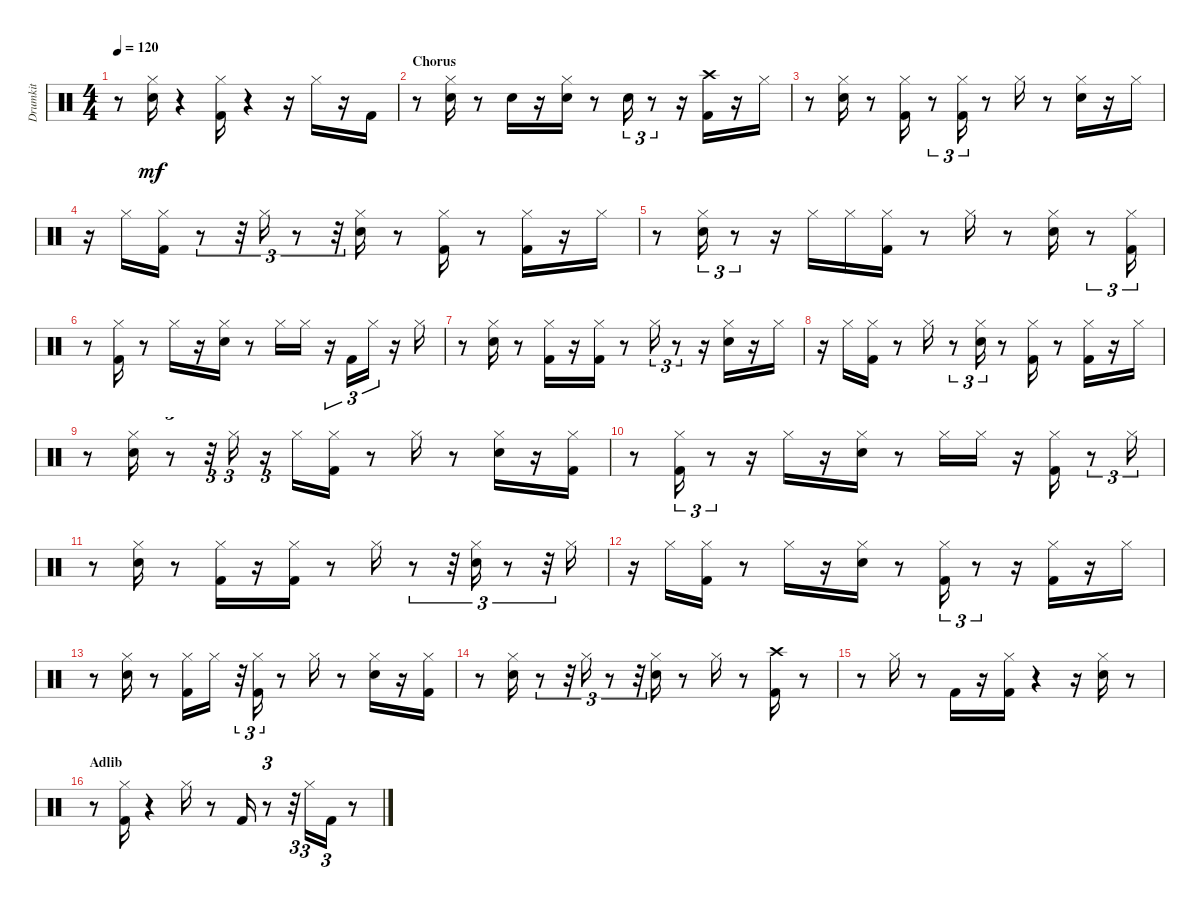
\track ("Drumkit" "Drumkit") {instrument percussion}
\staff {score}
\articulation defaults
\ts (4 4)
\tempo 120
\clef neutral
\ks aminor
r.8{dy mf} ("Snare (hit) 2" "Hi-Hat (closed)").16 r.4 ("Kick (hit) 2" "Hi-Hat (closed)").16 r.4 r.16 "Hi-Hat (closed)".16 r.16 "Kick (hit) 2".16 |
\section ("" "Chorus")
r.8 ("Snare (hit) 2" "Hi-Hat (closed)").16 r.8 "Snare (hit) 2".16 r.16 ("Snare (hit) 2" "Hi-Hat (closed)").16 r.8 "Snare (hit) 2".16{tu (3 2)} r.8{tu (3 2)} r.16 ("Kick (hit) 2" "Crash high (hit)").16 r.16 "Hi-Hat (closed)".16 |
r.8 ("Snare (hit) 2" "Hi-Hat (closed)").16 r.8 ("Kick (hit) 2" "Hi-Hat (closed)").16 r.8{tu (3 2)} ("Kick (hit) 2" "Hi-Hat (closed)").16{tu (3 2)} r.8 "Hi-Hat (closed)".16 r.8 ("Snare (hit) 2" "Hi-Hat (closed)").16 r.16 "Hi-Hat (closed)".16 |
r.16 "Hi-Hat (closed)".16 ("Kick (hit) 2" "Hi-Hat (closed)").16 r.8{tu (3 2)} r.32{tu (3 2)} "Hi-Hat (closed)".16{tu (3 2)} r.8{tu (3 2)} r.32{tu (3 2)} ("Snare (hit) 2" "Hi-Hat (closed)").16 r.8 ("Kick (hit) 2" "Hi-Hat (closed)").16 r.8 ("Kick (hit) 2" "Hi-Hat (closed)").16 r.16 "Hi-Hat (closed)".16 |
r.8 ("Snare (hit) 2" "Hi-Hat (closed)").16{tu (3 2)} r.8{tu (3 2)} r.16 "Hi-Hat (closed)".16 "Hi-Hat (closed)".16 ("Kick (hit) 2" "Hi-Hat (closed)").16 r.8 "Hi-Hat (closed)".16 r.8 ("Snare (hit) 2" "Hi-Hat (closed)").16 r.8{tu (3 2)} ("Kick (hit) 2" "Hi-Hat (closed)").16{tu (3 2)} |
r.8 ("Kick (hit) 2" "Hi-Hat (closed)").16 r.8 "Hi-Hat (closed)".16 r.16 ("Snare (hit) 2" "Hi-Hat (closed)").16 r.8 "Hi-Hat (closed)".16 "Hi-Hat (closed)".16 r.16{tu (3 2)} "Kick (hit) 2".16{tu (3 2)} "Hi-Hat (closed)".16{tu (3 2)} r.16 "Hi-Hat (closed)".16 |
r.8 ("Snare (hit) 2" "Hi-Hat (closed)").16 r.8 ("Kick (hit) 2" "Hi-Hat (closed)").16 r.16 ("Kick (hit) 2" "Hi-Hat (closed)").16 r.8 "Hi-Hat (closed)".16{tu (3 2)} r.8{tu (3 2)} r.16 ("Snare (hit) 2" "Hi-Hat (closed)").16 r.16 "Hi-Hat (closed)".16 |
r.16 "Hi-Hat (closed)".16 ("Kick (hit) 2" "Hi-Hat (closed)").16 r.8 "Hi-Hat (closed)".16 r.8{tu (3 2)} ("Snare (hit) 2" "Hi-Hat (closed)").16{tu (3 2)} r.8 ("Kick (hit) 2" "Hi-Hat (closed)").16 r.8 ("Kick (hit) 2" "Hi-Hat (closed)").16 r.16 "Hi-Hat (closed)".16 |
r.8 ("Snare (hit) 2" "Hi-Hat (closed)").16 r.8{tu (3 2)} r.32{tu (3 2)} "Hi-Hat (closed)".16{tu (3 2)} r.16{tu (3 2)} "Hi-Hat (closed)".16 ("Kick (hit) 2" "Hi-Hat (closed)").16 r.8 "Hi-Hat (closed)".16 r.8 ("Snare (hit) 2" "Hi-Hat (closed)").16 r.16 ("Kick (hit) 2" "Hi-Hat (closed)").16 |
r.8 ("Kick (hit) 2" "Hi-Hat (closed)").16{tu (3 2)} r.8{tu (3 2)} r.16 "Hi-Hat (closed)".16 r.16 ("Snare (hit) 2" "Hi-Hat (closed)").16 r.8 "Hi-Hat (closed)".16 "Hi-Hat (closed)".16 r.16 ("Kick (hit) 2" "Hi-Hat (closed)").16 r.8{tu (3 2)} "Hi-Hat (closed)".16{tu (3 2)} |
r.8 ("Snare (hit) 2" "Hi-Hat (closed)").16 r.8 ("Kick (hit) 2" "Hi-Hat (closed)").16 r.16 ("Kick (hit) 2" "Hi-Hat (closed)").16 r.8 "Hi-Hat (closed)".16 r.8{tu (3 2)} r.32{tu (3 2)} ("Snare (hit) 2" "Hi-Hat (closed)").16{tu (3 2)} r.8{tu (3 2)} r.32{tu (3 2)} "Hi-Hat (closed)".16 |
r.16 "Hi-Hat (closed)".16 ("Kick (hit) 2" "Hi-Hat (closed)").16 r.8 "Hi-Hat (closed)".16 r.16 ("Snare (hit) 2" "Hi-Hat (closed)").16 r.8 ("Kick (hit) 2" "Hi-Hat (closed)").16{tu (3 2)} r.8{tu (3 2)} r.16 ("Kick (hit) 2" "Hi-Hat (closed)").16 r.16 "Hi-Hat (closed)".16 |
r.8 ("Snare (hit) 2" "Hi-Hat (closed)").16 r.8 ("Kick (hit) 2" "Hi-Hat (closed)").16 "Hi-Hat (closed)".16 r.32{tu (3 2)} ("Kick (hit) 2" "Hi-Hat (closed)").16{tu (3 2)} r.8 "Hi-Hat (closed)".16 r.8 ("Snare (hit) 2" "Hi-Hat (closed)").16 r.16 ("Kick (hit) 2" "Hi-Hat (closed)").16 |
r.8 ("Snare (hit) 2" "Hi-Hat (closed)").16 r.8{tu (3 2)} r.32{tu (3 2)} "Hi-Hat (closed)".16{tu (3 2)} r.8{tu (3 2)} r.32{tu (3 2)} ("Snare (hit) 2" "Hi-Hat (closed)").16 r.8 "Hi-Hat (closed)".16 r.8 ("Kick (hit) 2" "Crash high (hit)").16 r.8 |
r.8 "Hi-Hat (closed)".16 r.8 "Kick (hit) 2".16 r.16 ("Kick (hit) 2" "Hi-Hat (closed)").16 r.4 r.16 ("Snare (hit) 2" "Hi-Hat (closed)").16 r.8 |
\section ("" "Adlib")
r.8 ("Kick (hit) 2" "Hi-Hat (closed)").16 r.4 "Hi-Hat (closed)".16 r.8 "Kick (hit) 2".16 r.8{tu (3 2)} r.32{tu (3 2)} "Hi-Hat (closed)".16{tu (3 2)} "Kick (hit) 2".16{tu (3 2)} r.8
